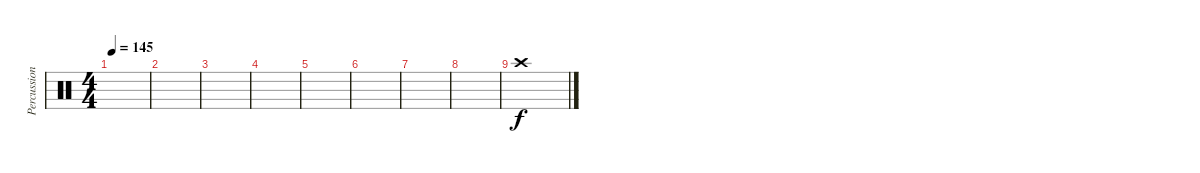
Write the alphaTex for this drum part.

\track ("Percussion" "Percussion") {instrument percussion}
\staff {score}
\articulation defaults
\ts (4 4)
\tempo 145
\clef neutral
\ks c
|
|
|
|
|
|
|
|
"Crash high (hit)".1
